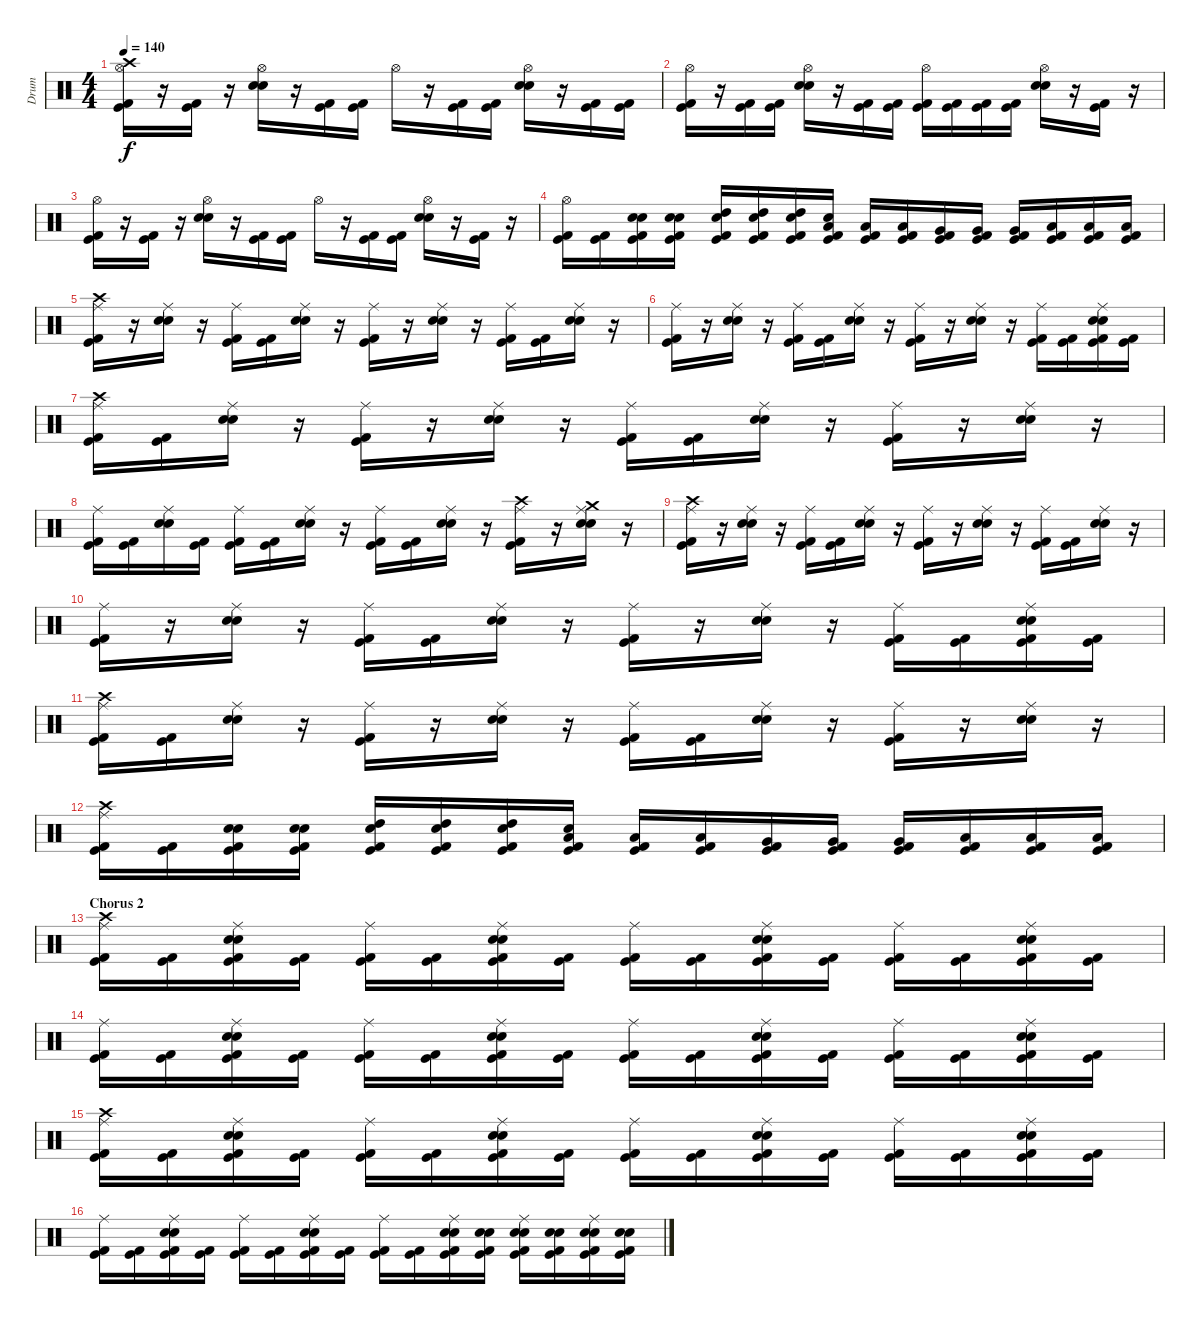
\track ("Drum" "Drum") {instrument percussion}
\staff {score}
\articulation defaults
\ts (4 4)
\tempo 140
\clef neutral
\ks c
("Crash high (hit)" "Hi-Hat (open)" "Kick (hit)" "Kick (hit) 2").16{dy f} r.16 ("Kick (hit)" "Kick (hit) 2").16 r.16 ("Hi-Hat (open)" "Snare (hit) 2" "Electric Snare (hit)").16 r.16 ("Kick (hit)" "Kick (hit) 2").16 ("Kick (hit)" "Kick (hit) 2").16 "Hi-Hat (open)".16 r.16 ("Kick (hit)" "Kick (hit) 2").16 ("Kick (hit)" "Kick (hit) 2").16 ("Hi-Hat (open)" "Snare (hit) 2" "Electric Snare (hit)").16 r.16 ("Kick (hit)" "Kick (hit) 2").16 ("Kick (hit)" "Kick (hit) 2").16 |
("Hi-Hat (open)" "Kick (hit)" "Kick (hit) 2").16 r.16 ("Kick (hit)" "Kick (hit) 2").16 ("Kick (hit)" "Kick (hit) 2").16 ("Hi-Hat (open)" "Snare (hit) 2" "Electric Snare (hit)").16 r.16 ("Kick (hit)" "Kick (hit) 2").16 ("Kick (hit)" "Kick (hit) 2").16 ("Hi-Hat (open)" "Kick (hit)" "Kick (hit) 2").16 ("Kick (hit)" "Kick (hit) 2").16 ("Kick (hit)" "Kick (hit) 2").16 ("Kick (hit)" "Kick (hit) 2").16 ("Hi-Hat (open)" "Snare (hit) 2" "Electric Snare (hit)").16 r.16 ("Kick (hit)" "Kick (hit) 2").16 r.16 |
("Hi-Hat (open)" "Kick (hit)" "Kick (hit) 2").16 r.16 ("Kick (hit)" "Kick (hit) 2").16 r.16 ("Hi-Hat (open)" "Snare (hit) 2" "Electric Snare (hit)").16 r.16 ("Kick (hit)" "Kick (hit) 2").16 ("Kick (hit)" "Kick (hit) 2").16 "Hi-Hat (open)".16 r.16 ("Kick (hit)" "Kick (hit) 2").16 ("Kick (hit)" "Kick (hit) 2").16 ("Hi-Hat (open)" "Snare (hit) 2" "Electric Snare (hit)").16 r.16 ("Kick (hit)" "Kick (hit) 2").16 r.16 |
("Hi-Hat (open)" "Kick (hit)" "Kick (hit) 2").16 ("Kick (hit)" "Kick (hit) 2").16 ("Snare (hit) 2" "Electric Snare (hit)" "Kick (hit)" "Kick (hit) 2").16 ("Snare (hit) 2" "Electric Snare (hit)" "Kick (hit)" "Kick (hit) 2").16 ("High Tom (hit)" "Electric Snare (hit)" "Kick (hit)" "Kick (hit) 2").16 ("High Tom (hit)" "Electric Snare (hit)" "Kick (hit)" "Kick (hit) 2").16 ("High Tom (hit)" "Electric Snare (hit)" "Kick (hit)" "Kick (hit) 2").16 ("Low Tom (hit)" "Electric Snare (hit)" "Kick (hit)" "Kick (hit) 2").16 ("Low Tom (hit)" "Kick (hit)" "Kick (hit) 2").16 ("Low Tom (hit)" "Kick (hit)" "Kick (hit) 2").16 ("Very Low Tom (hit)" "Kick (hit)" "Kick (hit) 2").16 ("Very Low Tom (hit)" "Kick (hit)" "Kick (hit) 2").16 ("Very Low Tom (hit)" "Kick (hit)" "Kick (hit) 2").16 ("Low Floor Tom (hit)" "Kick (hit)" "Kick (hit) 2").16 ("Low Floor Tom (hit)" "Kick (hit)" "Kick (hit) 2").16 ("Low Floor Tom (hit)" "Kick (hit)" "Kick (hit) 2").16 |
("Crash high (hit)" "Ride (middle)" "Kick (hit)" "Kick (hit) 2").16 r.16 ("Ride (middle)" "Snare (hit) 2" "Electric Snare (hit)").16 r.16 ("Ride (middle)" "Kick (hit)" "Kick (hit) 2").16 ("Kick (hit)" "Kick (hit) 2").16 ("Ride (middle)" "Snare (hit) 2" "Electric Snare (hit)").16 r.16 ("Ride (middle)" "Kick (hit)" "Kick (hit) 2").16 r.16 ("Ride (middle)" "Snare (hit) 2" "Electric Snare (hit)").16 r.16 ("Ride (middle)" "Kick (hit)" "Kick (hit) 2").16 ("Kick (hit)" "Kick (hit) 2").16 ("Ride (middle)" "Snare (hit) 2" "Electric Snare (hit)").16 r.16 |
("Ride (middle)" "Kick (hit)" "Kick (hit) 2").16 r.16 ("Ride (middle)" "Snare (hit) 2" "Electric Snare (hit)").16 r.16 ("Ride (middle)" "Kick (hit)" "Kick (hit) 2").16 ("Kick (hit)" "Kick (hit) 2").16 ("Ride (middle)" "Snare (hit) 2" "Electric Snare (hit)").16 r.16 ("Ride (middle)" "Kick (hit)" "Kick (hit) 2").16 r.16 ("Ride (middle)" "Snare (hit) 2" "Electric Snare (hit)").16 r.16 ("Ride (middle)" "Kick (hit)" "Kick (hit) 2").16 ("Kick (hit)" "Kick (hit) 2").16 ("Ride (middle)" "Snare (hit) 2" "Electric Snare (hit)" "Kick (hit)" "Kick (hit) 2").16 ("Kick (hit)" "Kick (hit) 2").16 |
("Crash high (hit)" "Ride (middle)" "Kick (hit)" "Kick (hit) 2").16 ("Kick (hit)" "Kick (hit) 2").16 ("Ride (middle)" "Snare (hit) 2" "Electric Snare (hit)").16 r.16 ("Ride (middle)" "Kick (hit)" "Kick (hit) 2").16 r.16 ("Ride (middle)" "Snare (hit) 2" "Electric Snare (hit)").16 r.16 ("Ride (middle)" "Kick (hit)" "Kick (hit) 2").16 ("Kick (hit)" "Kick (hit) 2").16 ("Ride (middle)" "Snare (hit) 2" "Electric Snare (hit)").16 r.16 ("Ride (middle)" "Kick (hit)" "Kick (hit) 2").16 r.16 ("Ride (middle)" "Snare (hit) 2" "Electric Snare (hit)").16 r.16 |
("Ride (middle)" "Kick (hit)" "Kick (hit) 2").16 ("Kick (hit)" "Kick (hit) 2").16 ("Ride (middle)" "Snare (hit) 2" "Electric Snare (hit)").16 ("Kick (hit)" "Kick (hit) 2").16 ("Ride (middle)" "Kick (hit)" "Kick (hit) 2").16 ("Kick (hit)" "Kick (hit) 2").16 ("Ride (middle)" "Snare (hit) 2" "Electric Snare (hit)").16 r.16 ("Ride (middle)" "Kick (hit)" "Kick (hit) 2").16 ("Kick (hit)" "Kick (hit) 2").16 ("Ride (middle)" "Snare (hit) 2" "Electric Snare (hit)").16 r.16 ("Crash high (hit)" "Ride (middle)" "Kick (hit)" "Kick (hit) 2").16 r.16 ("Crash medium (hit)" "Ride (middle)" "Snare (hit) 2" "Electric Snare (hit)").16 r.16 |
("Crash high (hit)" "Ride (middle)" "Kick (hit)" "Kick (hit) 2").16 r.16 ("Ride (middle)" "Snare (hit) 2" "Electric Snare (hit)").16 r.16 ("Ride (middle)" "Kick (hit)" "Kick (hit) 2").16 ("Kick (hit)" "Kick (hit) 2").16 ("Ride (middle)" "Snare (hit) 2" "Electric Snare (hit)").16 r.16 ("Ride (middle)" "Kick (hit)" "Kick (hit) 2").16 r.16 ("Ride (middle)" "Snare (hit) 2" "Electric Snare (hit)").16 r.16 ("Ride (middle)" "Kick (hit)" "Kick (hit) 2").16 ("Kick (hit)" "Kick (hit) 2").16 ("Ride (middle)" "Snare (hit) 2" "Electric Snare (hit)").16 r.16 |
("Ride (middle)" "Kick (hit)" "Kick (hit) 2").16 r.16 ("Ride (middle)" "Snare (hit) 2" "Electric Snare (hit)").16 r.16 ("Ride (middle)" "Kick (hit)" "Kick (hit) 2").16 ("Kick (hit)" "Kick (hit) 2").16 ("Ride (middle)" "Snare (hit) 2" "Electric Snare (hit)").16 r.16 ("Ride (middle)" "Kick (hit)" "Kick (hit) 2").16 r.16 ("Ride (middle)" "Snare (hit) 2" "Electric Snare (hit)").16 r.16 ("Ride (middle)" "Kick (hit)" "Kick (hit) 2").16 ("Kick (hit)" "Kick (hit) 2").16 ("Ride (middle)" "Snare (hit) 2" "Electric Snare (hit)" "Kick (hit)" "Kick (hit) 2").16 ("Kick (hit)" "Kick (hit) 2").16 |
("Crash high (hit)" "Ride (middle)" "Kick (hit)" "Kick (hit) 2").16 ("Kick (hit)" "Kick (hit) 2").16 ("Ride (middle)" "Snare (hit) 2" "Electric Snare (hit)").16 r.16 ("Ride (middle)" "Kick (hit)" "Kick (hit) 2").16 r.16 ("Ride (middle)" "Snare (hit) 2" "Electric Snare (hit)").16 r.16 ("Ride (middle)" "Kick (hit)" "Kick (hit) 2").16 ("Kick (hit)" "Kick (hit) 2").16 ("Ride (middle)" "Snare (hit) 2" "Electric Snare (hit)").16 r.16 ("Ride (middle)" "Kick (hit)" "Kick (hit) 2").16 r.16 ("Ride (middle)" "Snare (hit) 2" "Electric Snare (hit)").16 r.16 |
("Crash high (hit)" "Ride (middle)" "Kick (hit)" "Kick (hit) 2").16 ("Kick (hit)" "Kick (hit) 2").16 ("Snare (hit) 2" "Electric Snare (hit)" "Kick (hit)" "Kick (hit) 2").16 ("Snare (hit) 2" "Electric Snare (hit)" "Kick (hit)" "Kick (hit) 2").16 ("High Tom (hit)" "Electric Snare (hit)" "Kick (hit)" "Kick (hit) 2").16 ("High Tom (hit)" "Electric Snare (hit)" "Kick (hit)" "Kick (hit) 2").16 ("High Tom (hit)" "Electric Snare (hit)" "Kick (hit)" "Kick (hit) 2").16 ("Low Tom (hit)" "Electric Snare (hit)" "Kick (hit)" "Kick (hit) 2").16 ("Low Tom (hit)" "Kick (hit)" "Kick (hit) 2").16 ("Low Tom (hit)" "Kick (hit)" "Kick (hit) 2").16 ("Very Low Tom (hit)" "Kick (hit)" "Kick (hit) 2").16 ("Very Low Tom (hit)" "Kick (hit)" "Kick (hit) 2").16 ("Very Low Tom (hit)" "Kick (hit)" "Kick (hit) 2").16 ("Low Floor Tom (hit)" "Kick (hit)" "Kick (hit) 2").16 ("Low Floor Tom (hit)" "Kick (hit)" "Kick (hit) 2").16 ("Low Floor Tom (hit)" "Kick (hit)" "Kick (hit) 2").16 |
\section ("" "Chorus 2")
("Crash high (hit)" "Ride (middle)" "Kick (hit)" "Kick (hit) 2").16 ("Kick (hit)" "Kick (hit) 2").16 ("Ride (middle)" "Snare (hit) 2" "Electric Snare (hit)" "Kick (hit)" "Kick (hit) 2").16 ("Kick (hit)" "Kick (hit) 2").16 ("Ride (middle)" "Kick (hit)" "Kick (hit) 2").16 ("Kick (hit)" "Kick (hit) 2").16 ("Ride (middle)" "Snare (hit) 2" "Electric Snare (hit)" "Kick (hit)" "Kick (hit) 2").16 ("Kick (hit)" "Kick (hit) 2").16 ("Ride (middle)" "Kick (hit)" "Kick (hit) 2").16 ("Kick (hit)" "Kick (hit) 2").16 ("Ride (middle)" "Snare (hit) 2" "Electric Snare (hit)" "Kick (hit)" "Kick (hit) 2").16 ("Kick (hit)" "Kick (hit) 2").16 ("Ride (middle)" "Kick (hit)" "Kick (hit) 2").16 ("Kick (hit)" "Kick (hit) 2").16 ("Ride (middle)" "Snare (hit) 2" "Electric Snare (hit)" "Kick (hit)" "Kick (hit) 2").16 ("Kick (hit)" "Kick (hit) 2").16 |
("Ride (middle)" "Kick (hit)" "Kick (hit) 2").16 ("Kick (hit)" "Kick (hit) 2").16 ("Ride (middle)" "Snare (hit) 2" "Electric Snare (hit)" "Kick (hit)" "Kick (hit) 2").16 ("Kick (hit)" "Kick (hit) 2").16 ("Ride (middle)" "Kick (hit)" "Kick (hit) 2").16 ("Kick (hit)" "Kick (hit) 2").16 ("Ride (middle)" "Snare (hit) 2" "Electric Snare (hit)" "Kick (hit)" "Kick (hit) 2").16 ("Kick (hit)" "Kick (hit) 2").16 ("Ride (middle)" "Kick (hit)" "Kick (hit) 2").16 ("Kick (hit)" "Kick (hit) 2").16 ("Ride (middle)" "Snare (hit) 2" "Electric Snare (hit)" "Kick (hit)" "Kick (hit) 2").16 ("Kick (hit)" "Kick (hit) 2").16 ("Ride (middle)" "Kick (hit)" "Kick (hit) 2").16 ("Kick (hit)" "Kick (hit) 2").16 ("Ride (middle)" "Snare (hit) 2" "Electric Snare (hit)" "Kick (hit)" "Kick (hit) 2").16 ("Kick (hit)" "Kick (hit) 2").16 |
("Crash high (hit)" "Ride (middle)" "Kick (hit)" "Kick (hit) 2").16 ("Kick (hit)" "Kick (hit) 2").16 ("Ride (middle)" "Snare (hit) 2" "Electric Snare (hit)" "Kick (hit)" "Kick (hit) 2").16 ("Kick (hit)" "Kick (hit) 2").16 ("Ride (middle)" "Kick (hit)" "Kick (hit) 2").16 ("Kick (hit)" "Kick (hit) 2").16 ("Ride (middle)" "Snare (hit) 2" "Electric Snare (hit)" "Kick (hit)" "Kick (hit) 2").16 ("Kick (hit)" "Kick (hit) 2").16 ("Ride (middle)" "Kick (hit)" "Kick (hit) 2").16 ("Kick (hit)" "Kick (hit) 2").16 ("Ride (middle)" "Snare (hit) 2" "Electric Snare (hit)" "Kick (hit)" "Kick (hit) 2").16 ("Kick (hit)" "Kick (hit) 2").16 ("Ride (middle)" "Kick (hit)" "Kick (hit) 2").16 ("Kick (hit)" "Kick (hit) 2").16 ("Ride (middle)" "Snare (hit) 2" "Electric Snare (hit)" "Kick (hit)" "Kick (hit) 2").16 ("Kick (hit)" "Kick (hit) 2").16 |
("Ride (middle)" "Kick (hit)" "Kick (hit) 2").16 ("Kick (hit)" "Kick (hit) 2").16 ("Ride (middle)" "Snare (hit) 2" "Electric Snare (hit)" "Kick (hit)" "Kick (hit) 2").16 ("Kick (hit)" "Kick (hit) 2").16 ("Ride (middle)" "Kick (hit)" "Kick (hit) 2").16 ("Kick (hit)" "Kick (hit) 2").16 ("Ride (middle)" "Snare (hit) 2" "Electric Snare (hit)" "Kick (hit)" "Kick (hit) 2").16 ("Kick (hit)" "Kick (hit) 2").16 ("Ride (middle)" "Kick (hit)" "Kick (hit) 2").16 ("Kick (hit)" "Kick (hit) 2").16 ("Ride (middle)" "Snare (hit) 2" "Electric Snare (hit)" "Kick (hit)" "Kick (hit) 2").16 ("Snare (hit) 2" "Electric Snare (hit)" "Kick (hit)" "Kick (hit) 2").16 ("Ride (middle)" "Snare (hit) 2" "Electric Snare (hit)" "Kick (hit)" "Kick (hit) 2").16 ("Snare (hit) 2" "Electric Snare (hit)" "Kick (hit)" "Kick (hit) 2").16 ("Ride (middle)" "Snare (hit) 2" "Electric Snare (hit)" "Kick (hit)" "Kick (hit) 2").16 ("Snare (hit) 2" "Electric Snare (hit)" "Kick (hit)" "Kick (hit) 2").16
